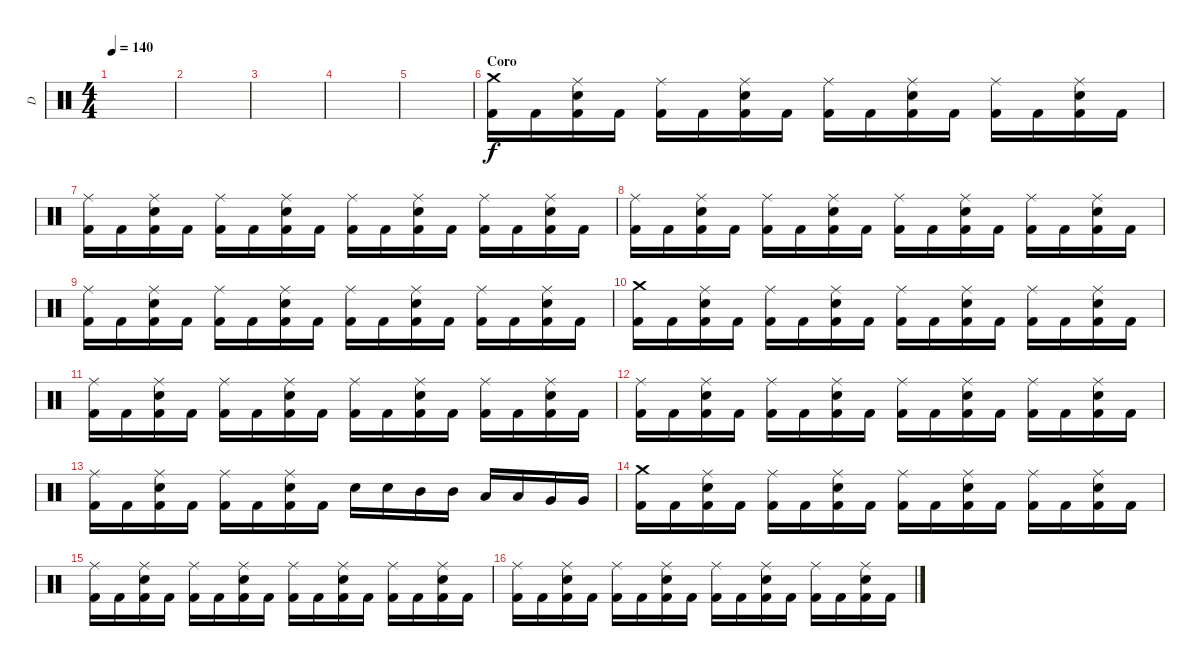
\track ("D" "D") {instrument percussion}
\staff {score}
\articulation defaults
\ts (4 4)
\tempo 140
\clef neutral
\ks c
|
|
|
|
|
\section ("" "Coro")
("Crash medium (hit)" "Kick (hit) 2").16 "Kick (hit) 2".16 ("Ride (middle)" "Electric Snare (hit)" "Kick (hit) 2").16 "Kick (hit) 2".16 ("Ride (middle)" "Kick (hit) 2").16 "Kick (hit) 2".16 ("Ride (middle)" "Electric Snare (hit)" "Kick (hit) 2").16 "Kick (hit) 2".16 ("Ride (middle)" "Kick (hit) 2").16 "Kick (hit) 2".16 ("Ride (middle)" "Electric Snare (hit)" "Kick (hit) 2").16 "Kick (hit) 2".16 ("Ride (middle)" "Kick (hit) 2").16 "Kick (hit) 2".16 ("Ride (middle)" "Electric Snare (hit)" "Kick (hit) 2").16 "Kick (hit) 2".16 |
("Ride (middle)" "Kick (hit) 2").16 "Kick (hit) 2".16 ("Ride (middle)" "Electric Snare (hit)" "Kick (hit) 2").16 "Kick (hit) 2".16 ("Ride (middle)" "Kick (hit) 2").16 "Kick (hit) 2".16 ("Ride (middle)" "Electric Snare (hit)" "Kick (hit) 2").16 "Kick (hit) 2".16 ("Ride (middle)" "Kick (hit) 2").16 "Kick (hit) 2".16 ("Ride (middle)" "Electric Snare (hit)" "Kick (hit) 2").16 "Kick (hit) 2".16 ("Ride (middle)" "Kick (hit) 2").16 "Kick (hit) 2".16 ("Ride (middle)" "Electric Snare (hit)" "Kick (hit) 2").16 "Kick (hit) 2".16 |
("Ride (middle)" "Kick (hit) 2").16 "Kick (hit) 2".16 ("Ride (middle)" "Electric Snare (hit)" "Kick (hit) 2").16 "Kick (hit) 2".16 ("Ride (middle)" "Kick (hit) 2").16 "Kick (hit) 2".16 ("Ride (middle)" "Electric Snare (hit)" "Kick (hit) 2").16 "Kick (hit) 2".16 ("Ride (middle)" "Kick (hit) 2").16 "Kick (hit) 2".16 ("Ride (middle)" "Electric Snare (hit)" "Kick (hit) 2").16 "Kick (hit) 2".16 ("Ride (middle)" "Kick (hit) 2").16 "Kick (hit) 2".16 ("Ride (middle)" "Electric Snare (hit)" "Kick (hit) 2").16 "Kick (hit) 2".16 |
("Ride (middle)" "Kick (hit) 2").16 "Kick (hit) 2".16 ("Ride (middle)" "Electric Snare (hit)" "Kick (hit) 2").16 "Kick (hit) 2".16 ("Ride (middle)" "Kick (hit) 2").16 "Kick (hit) 2".16 ("Ride (middle)" "Electric Snare (hit)" "Kick (hit) 2").16 "Kick (hit) 2".16 ("Ride (middle)" "Kick (hit) 2").16 "Kick (hit) 2".16 ("Ride (middle)" "Electric Snare (hit)" "Kick (hit) 2").16 "Kick (hit) 2".16 ("Ride (middle)" "Kick (hit) 2").16 "Kick (hit) 2".16 ("Ride (middle)" "Electric Snare (hit)" "Kick (hit) 2").16 "Kick (hit) 2".16 |
("Crash medium (hit)" "Kick (hit) 2").16 "Kick (hit) 2".16 ("Ride (middle)" "Electric Snare (hit)" "Kick (hit) 2").16 "Kick (hit) 2".16 ("Ride (middle)" "Kick (hit) 2").16 "Kick (hit) 2".16 ("Ride (middle)" "Electric Snare (hit)" "Kick (hit) 2").16 "Kick (hit) 2".16 ("Ride (middle)" "Kick (hit) 2").16 "Kick (hit) 2".16 ("Ride (middle)" "Electric Snare (hit)" "Kick (hit) 2").16 "Kick (hit) 2".16 ("Ride (middle)" "Kick (hit) 2").16 "Kick (hit) 2".16 ("Ride (middle)" "Electric Snare (hit)" "Kick (hit) 2").16 "Kick (hit) 2".16 |
("Ride (middle)" "Kick (hit) 2").16 "Kick (hit) 2".16 ("Ride (middle)" "Electric Snare (hit)" "Kick (hit) 2").16 "Kick (hit) 2".16 ("Ride (middle)" "Kick (hit) 2").16 "Kick (hit) 2".16 ("Ride (middle)" "Electric Snare (hit)" "Kick (hit) 2").16 "Kick (hit) 2".16 ("Ride (middle)" "Kick (hit) 2").16 "Kick (hit) 2".16 ("Ride (middle)" "Electric Snare (hit)" "Kick (hit) 2").16 "Kick (hit) 2".16 ("Ride (middle)" "Kick (hit) 2").16 "Kick (hit) 2".16 ("Ride (middle)" "Electric Snare (hit)" "Kick (hit) 2").16 "Kick (hit) 2".16 |
("Ride (middle)" "Kick (hit) 2").16 "Kick (hit) 2".16 ("Ride (middle)" "Electric Snare (hit)" "Kick (hit) 2").16 "Kick (hit) 2".16 ("Ride (middle)" "Kick (hit) 2").16 "Kick (hit) 2".16 ("Ride (middle)" "Electric Snare (hit)" "Kick (hit) 2").16 "Kick (hit) 2".16 ("Ride (middle)" "Kick (hit) 2").16 "Kick (hit) 2".16 ("Ride (middle)" "Electric Snare (hit)" "Kick (hit) 2").16 "Kick (hit) 2".16 ("Ride (middle)" "Kick (hit) 2").16 "Kick (hit) 2".16 ("Ride (middle)" "Electric Snare (hit)" "Kick (hit) 2").16 "Kick (hit) 2".16 |
("Ride (middle)" "Kick (hit) 2").16 "Kick (hit) 2".16 ("Ride (middle)" "Electric Snare (hit)" "Kick (hit) 2").16 "Kick (hit) 2".16 ("Ride (middle)" "Kick (hit) 2").16 "Kick (hit) 2".16 ("Ride (middle)" "Electric Snare (hit)" "Kick (hit) 2").16 "Kick (hit) 2".16 "Electric Snare (hit)".16 "Electric Snare (hit)".16 "Mid Tom (hit)".16 "Mid Tom (hit)".16 "Low Tom (hit)".16 "Low Tom (hit)".16 "Very Low Tom (hit)".16 "Very Low Tom (hit)".16 |
("Crash medium (hit)" "Kick (hit) 2").16 "Kick (hit) 2".16 ("Ride (middle)" "Electric Snare (hit)" "Kick (hit) 2").16 "Kick (hit) 2".16 ("Ride (middle)" "Kick (hit) 2").16 "Kick (hit) 2".16 ("Ride (middle)" "Electric Snare (hit)" "Kick (hit) 2").16 "Kick (hit) 2".16 ("Ride (middle)" "Kick (hit) 2").16 "Kick (hit) 2".16 ("Ride (middle)" "Electric Snare (hit)" "Kick (hit) 2").16 "Kick (hit) 2".16 ("Ride (middle)" "Kick (hit) 2").16 "Kick (hit) 2".16 ("Ride (middle)" "Electric Snare (hit)" "Kick (hit) 2").16 "Kick (hit) 2".16 |
("Ride (middle)" "Kick (hit) 2").16 "Kick (hit) 2".16 ("Ride (middle)" "Electric Snare (hit)" "Kick (hit) 2").16 "Kick (hit) 2".16 ("Ride (middle)" "Kick (hit) 2").16 "Kick (hit) 2".16 ("Ride (middle)" "Electric Snare (hit)" "Kick (hit) 2").16 "Kick (hit) 2".16 ("Ride (middle)" "Kick (hit) 2").16 "Kick (hit) 2".16 ("Ride (middle)" "Electric Snare (hit)" "Kick (hit) 2").16 "Kick (hit) 2".16 ("Ride (middle)" "Kick (hit) 2").16 "Kick (hit) 2".16 ("Ride (middle)" "Electric Snare (hit)" "Kick (hit) 2").16 "Kick (hit) 2".16 |
("Ride (middle)" "Kick (hit) 2").16 "Kick (hit) 2".16 ("Ride (middle)" "Electric Snare (hit)" "Kick (hit) 2").16 "Kick (hit) 2".16 ("Ride (middle)" "Kick (hit) 2").16 "Kick (hit) 2".16 ("Ride (middle)" "Electric Snare (hit)" "Kick (hit) 2").16 "Kick (hit) 2".16 ("Ride (middle)" "Kick (hit) 2").16 "Kick (hit) 2".16 ("Ride (middle)" "Electric Snare (hit)" "Kick (hit) 2").16 "Kick (hit) 2".16 ("Ride (middle)" "Kick (hit) 2").16 "Kick (hit) 2".16 ("Ride (middle)" "Electric Snare (hit)" "Kick (hit) 2").16 "Kick (hit) 2".16
